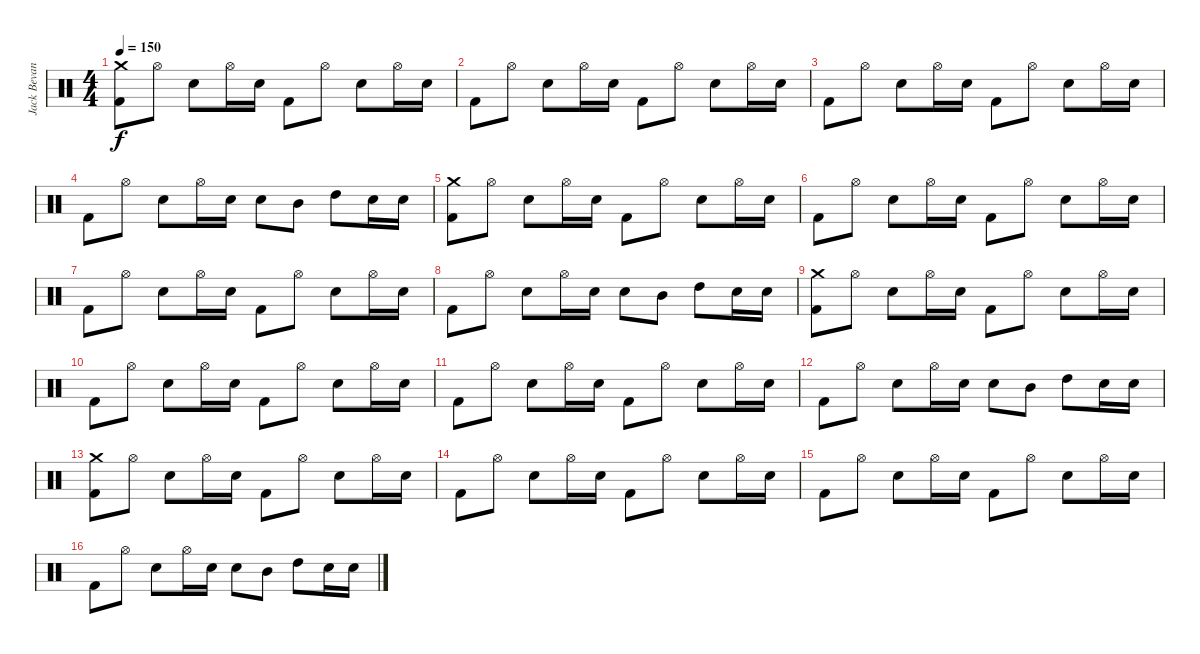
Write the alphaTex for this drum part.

\track ("Jack Bevan (Percussion)" "Jack Bevan") {instrument percussion bank 255}
\staff {score}
\articulation defaults
\ts (4 4)
\tempo 150
\clef neutral
\ks c
("Crash medium (hit)" "Kick (hit) 2").8{dy f} "Hi-Hat (open)".8 "Snare (hit) 2".8 "Hi-Hat (open)".16 "Snare (hit) 2".16 "Kick (hit) 2".8 "Hi-Hat (open)".8 "Snare (hit) 2".8 "Hi-Hat (open)".16 "Snare (hit) 2".16 |
"Kick (hit) 2".8 "Hi-Hat (open)".8 "Snare (hit) 2".8 "Hi-Hat (open)".16 "Snare (hit) 2".16 "Kick (hit) 2".8 "Hi-Hat (open)".8 "Snare (hit) 2".8 "Hi-Hat (open)".16 "Snare (hit) 2".16 |
"Kick (hit) 2".8 "Hi-Hat (open)".8 "Snare (hit) 2".8 "Hi-Hat (open)".16 "Snare (hit) 2".16 "Kick (hit) 2".8 "Hi-Hat (open)".8 "Snare (hit) 2".8 "Hi-Hat (open)".16 "Snare (hit) 2".16 |
"Kick (hit) 2".8 "Hi-Hat (open)".8 "Snare (hit) 2".8 "Hi-Hat (open)".16 "Snare (hit) 2".16 "Snare (hit) 2".8 "Mid Tom (hit)".8 "High Tom (hit)".8 "Snare (hit) 2".16 "Snare (hit) 2".16 |
("Crash medium (hit)" "Kick (hit) 2").8 "Hi-Hat (open)".8 "Snare (hit) 2".8 "Hi-Hat (open)".16 "Snare (hit) 2".16 "Kick (hit) 2".8 "Hi-Hat (open)".8 "Snare (hit) 2".8 "Hi-Hat (open)".16 "Snare (hit) 2".16 |
"Kick (hit) 2".8 "Hi-Hat (open)".8 "Snare (hit) 2".8 "Hi-Hat (open)".16 "Snare (hit) 2".16 "Kick (hit) 2".8 "Hi-Hat (open)".8 "Snare (hit) 2".8 "Hi-Hat (open)".16 "Snare (hit) 2".16 |
"Kick (hit) 2".8 "Hi-Hat (open)".8 "Snare (hit) 2".8 "Hi-Hat (open)".16 "Snare (hit) 2".16 "Kick (hit) 2".8 "Hi-Hat (open)".8 "Snare (hit) 2".8 "Hi-Hat (open)".16 "Snare (hit) 2".16 |
"Kick (hit) 2".8 "Hi-Hat (open)".8 "Snare (hit) 2".8 "Hi-Hat (open)".16 "Snare (hit) 2".16 "Snare (hit) 2".8 "Mid Tom (hit)".8 "High Tom (hit)".8 "Snare (hit) 2".16 "Snare (hit) 2".16 |
("Crash medium (hit)" "Kick (hit) 2").8 "Hi-Hat (open)".8 "Snare (hit) 2".8 "Hi-Hat (open)".16 "Snare (hit) 2".16 "Kick (hit) 2".8 "Hi-Hat (open)".8 "Snare (hit) 2".8 "Hi-Hat (open)".16 "Snare (hit) 2".16 |
"Kick (hit) 2".8 "Hi-Hat (open)".8 "Snare (hit) 2".8 "Hi-Hat (open)".16 "Snare (hit) 2".16 "Kick (hit) 2".8 "Hi-Hat (open)".8 "Snare (hit) 2".8 "Hi-Hat (open)".16 "Snare (hit) 2".16 |
"Kick (hit) 2".8 "Hi-Hat (open)".8 "Snare (hit) 2".8 "Hi-Hat (open)".16 "Snare (hit) 2".16 "Kick (hit) 2".8 "Hi-Hat (open)".8 "Snare (hit) 2".8 "Hi-Hat (open)".16 "Snare (hit) 2".16 |
"Kick (hit) 2".8 "Hi-Hat (open)".8 "Snare (hit) 2".8 "Hi-Hat (open)".16 "Snare (hit) 2".16 "Snare (hit) 2".8 "Mid Tom (hit)".8 "High Tom (hit)".8 "Snare (hit) 2".16 "Snare (hit) 2".16 |
("Crash medium (hit)" "Kick (hit) 2").8 "Hi-Hat (open)".8 "Snare (hit) 2".8 "Hi-Hat (open)".16 "Snare (hit) 2".16 "Kick (hit) 2".8 "Hi-Hat (open)".8 "Snare (hit) 2".8 "Hi-Hat (open)".16 "Snare (hit) 2".16 |
"Kick (hit) 2".8 "Hi-Hat (open)".8 "Snare (hit) 2".8 "Hi-Hat (open)".16 "Snare (hit) 2".16 "Kick (hit) 2".8 "Hi-Hat (open)".8 "Snare (hit) 2".8 "Hi-Hat (open)".16 "Snare (hit) 2".16 |
"Kick (hit) 2".8 "Hi-Hat (open)".8 "Snare (hit) 2".8 "Hi-Hat (open)".16 "Snare (hit) 2".16 "Kick (hit) 2".8 "Hi-Hat (open)".8 "Snare (hit) 2".8 "Hi-Hat (open)".16 "Snare (hit) 2".16 |
"Kick (hit) 2".8 "Hi-Hat (open)".8 "Snare (hit) 2".8 "Hi-Hat (open)".16 "Snare (hit) 2".16 "Snare (hit) 2".8 "Mid Tom (hit)".8 "High Tom (hit)".8 "Snare (hit) 2".16 "Snare (hit) 2".16
